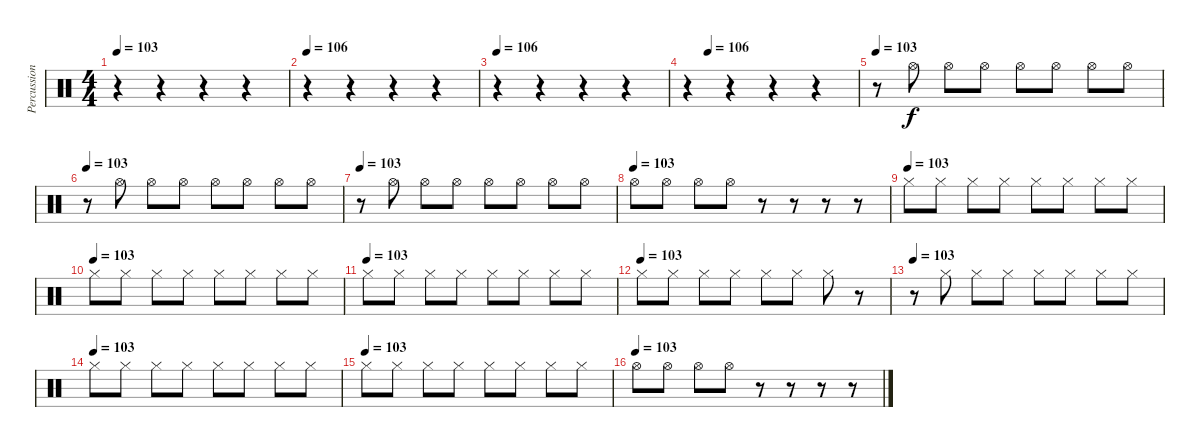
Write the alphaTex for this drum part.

\track ("Percussion2" "Percussion") {instrument percussion}
\staff {score}
\articulation defaults
\ts (4 4)
\tempo 103
\tempo 106
\tempo 103
\clef neutral
\ks c
r.4{dy f} r.4 r.4 r.4 |
\tempo 106
r.4 r.4 r.4 r.4 |
\tempo 106
r.4 r.4 r.4 r.4 |
\tempo (106 0.125)
r.4 r.4 r.4 r.4 |
\tempo 103
r.8 "Hi-Hat (open)".8 "Hi-Hat (open)".8 "Hi-Hat (open)".8 "Hi-Hat (open)".8 "Hi-Hat (open)".8 "Hi-Hat (open)".8 "Hi-Hat (open)".8 |
\tempo 103
r.8 "Hi-Hat (open)".8 "Hi-Hat (open)".8 "Hi-Hat (open)".8 "Hi-Hat (open)".8 "Hi-Hat (open)".8 "Hi-Hat (open)".8 "Hi-Hat (open)".8 |
\tempo 103
r.8 "Hi-Hat (open)".8 "Hi-Hat (open)".8 "Hi-Hat (open)".8 "Hi-Hat (open)".8 "Hi-Hat (open)".8 "Hi-Hat (open)".8 "Hi-Hat (open)".8 |
\tempo (103)
"Hi-Hat (open)".8 "Hi-Hat (open)".8 "Hi-Hat (open)".8 "Hi-Hat (open)".8 r.8 r.8 r.8 r.8 |
\tempo (103)
"Hi-Hat (closed)".8 "Hi-Hat (closed)".8 "Hi-Hat (closed)".8 "Hi-Hat (closed)".8 "Hi-Hat (closed)".8 "Hi-Hat (closed)".8 "Hi-Hat (closed)".8 "Hi-Hat (closed)".8 |
\tempo (103)
"Hi-Hat (closed)".8 "Hi-Hat (closed)".8 "Hi-Hat (closed)".8 "Hi-Hat (closed)".8 "Hi-Hat (closed)".8 "Hi-Hat (closed)".8 "Hi-Hat (closed)".8 "Hi-Hat (closed)".8 |
\tempo (103)
"Hi-Hat (closed)".8 "Hi-Hat (closed)".8 "Hi-Hat (closed)".8 "Hi-Hat (closed)".8 "Hi-Hat (closed)".8 "Hi-Hat (closed)".8 "Hi-Hat (closed)".8 "Hi-Hat (closed)".8 |
\tempo (103)
"Hi-Hat (closed)".8 "Hi-Hat (closed)".8 "Hi-Hat (closed)".8 "Hi-Hat (closed)".8 "Hi-Hat (closed)".8 "Hi-Hat (closed)".8 "Hi-Hat (closed)".8 r.8 |
\tempo 103
r.8 "Hi-Hat (closed)".8 "Hi-Hat (closed)".8 "Hi-Hat (closed)".8 "Hi-Hat (closed)".8 "Hi-Hat (closed)".8 "Hi-Hat (closed)".8 "Hi-Hat (closed)".8 |
\tempo (103)
"Hi-Hat (closed)".8 "Hi-Hat (closed)".8 "Hi-Hat (closed)".8 "Hi-Hat (closed)".8 "Hi-Hat (closed)".8 "Hi-Hat (closed)".8 "Hi-Hat (closed)".8 "Hi-Hat (closed)".8 |
\tempo (103)
"Hi-Hat (closed)".8 "Hi-Hat (closed)".8 "Hi-Hat (closed)".8 "Hi-Hat (closed)".8 "Hi-Hat (closed)".8 "Hi-Hat (closed)".8 "Hi-Hat (closed)".8 "Hi-Hat (closed)".8 |
\tempo (103)
"Hi-Hat (open)".8 "Hi-Hat (open)".8 "Hi-Hat (open)".8 "Hi-Hat (open)".8 r.8 r.8 r.8 r.8
